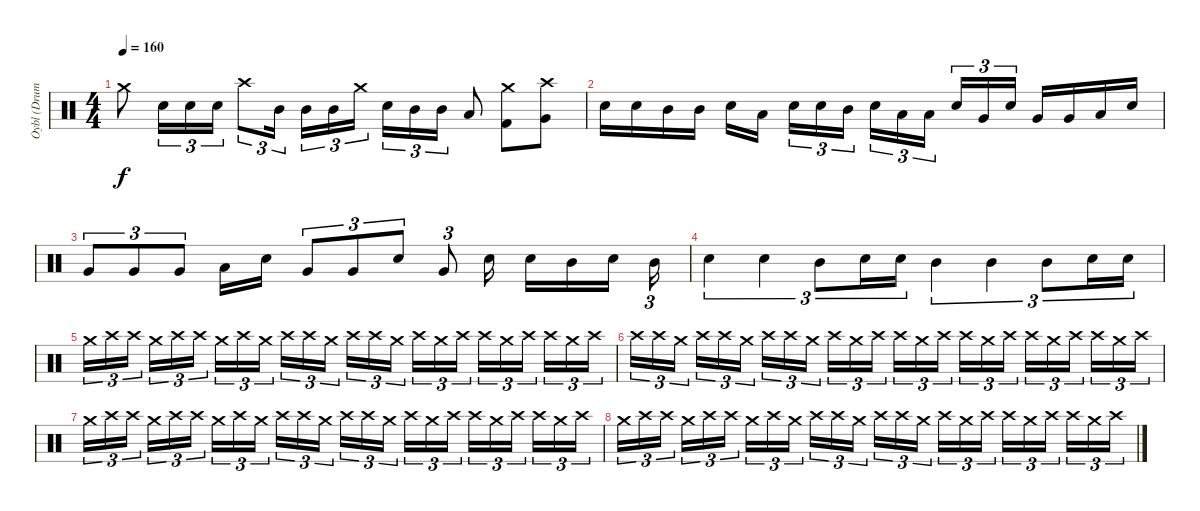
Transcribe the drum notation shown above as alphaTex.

\track ("Oybl (Drums)" "Oybl (Drum") {instrument percussion}
\staff {score}
\articulation defaults
\ts (4 4)
\tempo 160
\clef neutral
\ks c "Crash medium (hit)".8{dy f} "Electric Snare (hit)".16{tu (3 2)} "Electric Snare (hit)".16{tu (3 2)} "Electric Snare (hit)".16{tu (3 2)} "Crash high (hit)".8{tu (3 2)} "Mid Tom (hit)".16{tu (3 2)} "Mid Tom (hit)".16{tu (3 2)} "Mid Tom (hit)".16{tu (3 2)} "Crash medium (hit)".16{tu (3 2)} "Electric Snare (hit)".16{tu (3 2)} "Mid Tom (hit)".16{tu (3 2)} "Mid Tom (hit)".16{tu (3 2)} "Low Tom (hit)".8
("Crash medium (hit)" "Kick (hit) 2").8 ("Crash high (hit)" "Very Low Tom (hit)").8 |
"Electric Snare (hit)".16 "Electric Snare (hit)".16 "Mid Tom (hit)".16 "Mid Tom (hit)".16 "Electric Snare (hit)".16 "Low Tom (hit)".16 "Electric Snare (hit)".16{tu (3 2)} "Electric Snare (hit)".16{tu (3 2)} "Mid Tom (hit)".16{tu (3 2)} "Electric Snare (hit)".16{tu (3 2)} "Low Tom (hit)".16{tu (3 2)} "Low Tom (hit)".16{tu (3 2)} "Electric Snare (hit)".16{tu (3 2)} "Very Low Tom (hit)".16{tu (3 2)} "Electric Snare (hit)".16{tu (3 2)} "Very Low Tom (hit)".16 "Very Low Tom (hit)".16 "Low Floor Tom (hit)".16 "Electric Snare (hit)".16 |
"Very Low Tom (hit)".8{tu (3 2)} "Very Low Tom (hit)".8{tu (3 2)} "Very Low Tom (hit)".8{tu (3 2)} "Low Floor Tom (hit)".16 "Electric Snare (hit)".16 "Very Low Tom (hit)".8{tu (3 2)} "Very Low Tom (hit)".8{tu (3 2)} "Electric Snare (hit)".8{tu (3 2)} "Very Low Tom (hit)".8{tu (3 2)} "Electric Snare (hit)".16 "Electric Snare (hit)".16 "Mid Tom (hit)".16 "Electric Snare (hit)".16 "Mid Tom (hit)".16{tu (3 2)} |
"Electric Snare (hit)".4{tu (3 2)} "Electric Snare (hit)".4{tu (3 2)} "Mid Tom (hit)".8{tu (3 2)} "Electric Snare (hit)".16{tu (3 2)} "Electric Snare (hit)".16{tu (3 2)} "Mid Tom (hit)".4{tu (3 2)} "Mid Tom (hit)".4{tu (3 2)} "Mid Tom (hit)".8{tu (3 2)} "Electric Snare (hit)".16{tu (3 2)} "Electric Snare (hit)".16{tu (3 2) volume 8} |
"Crash medium (hit)".16{tu (3 2) volume 16} "Crash high (hit)".16{tu (3 2)} "Crash high (hit)".16{tu (3 2)} "Crash medium (hit)".16{tu (3 2)} "Crash high (hit)".16{tu (3 2)} "Crash high (hit)".16{tu (3 2)} "Crash medium (hit)".16{tu (3 2)} "Crash high (hit)".16{tu (3 2)} "Crash medium (hit)".16{tu (3 2)} "Crash high (hit)".16{tu (3 2)} "Crash high (hit)".16{tu (3 2)} "Crash medium (hit)".16{tu (3 2)} "Crash high (hit)".16{tu (3 2)} "Crash high (hit)".16{tu (3 2)} "Crash medium (hit)".16{tu (3 2)} "Crash high (hit)".16{tu (3 2)} "Crash medium (hit)".16{tu (3 2)} "Crash high (hit)".16{tu (3 2)} "Crash high (hit)".16{tu (3 2)} "Crash medium (hit)".16{tu (3 2)} "Crash high (hit)".16{tu (3 2)} "Crash high (hit)".16{tu (3 2)} "Crash medium (hit)".16{tu (3 2)} "Crash high (hit)".16{tu (3 2)} |
"Crash high (hit)".16{tu (3 2)} "Crash high (hit)".16{tu (3 2)} "Crash medium (hit)".16{tu (3 2)} "Crash high (hit)".16{tu (3 2)} "Crash high (hit)".16{tu (3 2)} "Crash medium (hit)".16{tu (3 2)} "Crash high (hit)".16{tu (3 2)} "Crash high (hit)".16{tu (3 2)} "Crash medium (hit)".16{tu (3 2)} "Crash high (hit)".16{tu (3 2)} "Crash medium (hit)".16{tu (3 2)} "Crash high (hit)".16{tu (3 2)} "Crash high (hit)".16{tu (3 2)} "Crash medium (hit)".16{tu (3 2)} "Crash high (hit)".16{tu (3 2)} "Crash high (hit)".16{tu (3 2)} "Crash medium (hit)".16{tu (3 2)} "Crash high (hit)".16{tu (3 2)} "Crash high (hit)".16{tu (3 2)} "Crash medium (hit)".16{tu (3 2)} "Crash high (hit)".16{tu (3 2)} "Crash high (hit)".16{tu (3 2)} "Crash medium (hit)".16{tu (3 2)} "Crash high (hit)".16{tu (3 2)} |
"Crash medium (hit)".16{tu (3 2)} "Crash high (hit)".16{tu (3 2)} "Crash high (hit)".16{tu (3 2)} "Crash medium (hit)".16{tu (3 2)} "Crash high (hit)".16{tu (3 2)} "Crash high (hit)".16{tu (3 2)} "Crash medium (hit)".16{tu (3 2)} "Crash high (hit)".16{tu (3 2)} "Crash medium (hit)".16{tu (3 2)} "Crash high (hit)".16{tu (3 2)} "Crash high (hit)".16{tu (3 2)} "Crash medium (hit)".16{tu (3 2)} "Crash high (hit)".16{tu (3 2)} "Crash high (hit)".16{tu (3 2)} "Crash medium (hit)".16{tu (3 2)} "Crash high (hit)".16{tu (3 2)} "Crash medium (hit)".16{tu (3 2)} "Crash high (hit)".16{tu (3 2)} "Crash high (hit)".16{tu (3 2)} "Crash medium (hit)".16{tu (3 2)} "Crash high (hit)".16{tu (3 2)} "Crash high (hit)".16{tu (3 2)} "Crash medium (hit)".16{tu (3 2)} "Crash high (hit)".16{tu (3 2)} |
"Crash medium (hit)".16{tu (3 2)} "Crash high (hit)".16{tu (3 2)} "Crash high (hit)".16{tu (3 2)} "Crash medium (hit)".16{tu (3 2)} "Crash high (hit)".16{tu (3 2)} "Crash high (hit)".16{tu (3 2)} "Crash medium (hit)".16{tu (3 2)} "Crash high (hit)".16{tu (3 2)} "Crash medium (hit)".16{tu (3 2)} "Crash high (hit)".16{tu (3 2)} "Crash high (hit)".16{tu (3 2)} "Crash medium (hit)".16{tu (3 2)} "Crash high (hit)".16{tu (3 2)} "Crash high (hit)".16{tu (3 2)} "Crash medium (hit)".16{tu (3 2)} "Crash high (hit)".16{tu (3 2)} "Crash medium (hit)".16{tu (3 2)} "Crash high (hit)".16{tu (3 2)} "Crash high (hit)".16{tu (3 2)} "Crash medium (hit)".16{tu (3 2)} "Crash high (hit)".16{tu (3 2)} "Crash high (hit)".16{tu (3 2)} "Crash medium (hit)".16{tu (3 2)} "Crash high (hit)".16{tu (3 2)}
